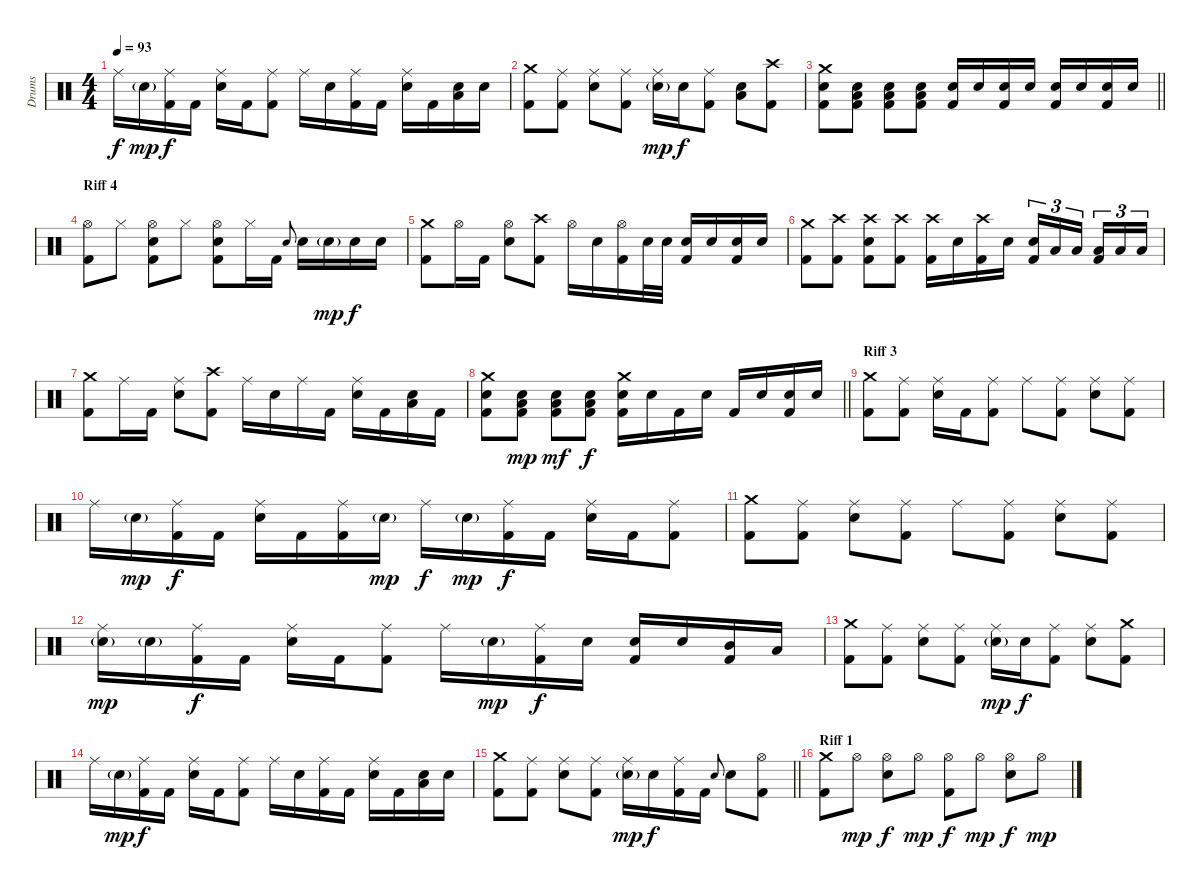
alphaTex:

\track ("Drums" "Drums") {instrument percussion}
\staff {score}
\articulation defaults
\ts (4 4)
\tempo 93
\clef neutral
\ks c "Ride (middle)".16{dy f} "Electric Snare (hit)"{g}.16{dy mp}
("Kick (hit) 2" "Ride (middle)").16{dy f} "Kick (hit) 2".16 ("Electric Snare (hit)" "Ride (middle)").16 "Kick (hit) 2".16 ("Ride (middle)" "Kick (hit) 2").8 "Ride (middle)".16 "Electric Snare (hit)".16 ("Ride (middle)" "Kick (hit) 2").16 "Kick (hit) 2".16 ("Ride (middle)" "Electric Snare (hit)").16 "Kick (hit) 2".16 ("Electric Snare (hit)" "Low Floor Tom (hit)").16 "Electric Snare (hit)".16 |
("Crash medium (hit)" "Kick (hit) 2").8 ("Ride (middle)" "Kick (hit) 2").8 ("Electric Snare (hit)" "Ride (middle)").8 ("Ride (middle)" "Kick (hit) 2").8 ("Electric Snare (hit)"{g} "Ride (middle)").16{dy mp} "Electric Snare (hit)".16{dy f} ("Kick (hit) 2" "Ride (middle)").8 ("Electric Snare (hit)" "Low Floor Tom (hit)").8 ("Kick (hit) 2" "Crash high (hit)").8 |
\barLineRight lightlight
("Crash medium (hit)" "Electric Snare (hit)" "Kick (hit) 2").8 ("Electric Snare (hit)" "Low Floor Tom (hit)" "Kick (hit) 2").8 ("Electric Snare (hit)" "Low Floor Tom (hit)" "Kick (hit) 2").8 ("Electric Snare (hit)" "Low Floor Tom (hit)" "Kick (hit) 2").8 ("Electric Snare (hit)" "Kick (hit) 2").16 "Electric Snare (hit)".16 ("Electric Snare (hit)" "Kick (hit) 2").16 "Electric Snare (hit)".16 ("Electric Snare (hit)" "Kick (hit) 2").16 "Electric Snare (hit)".16 ("Electric Snare (hit)" "Kick (hit) 2").16 "Electric Snare (hit)".16 |
\section ("" "Riff 4")
("Hi-Hat (open)" "Kick (hit) 2").8 "Hi-Hat (closed)".8 ("Hi-Hat (open)" "Kick (hit) 2" "Electric Snare (hit)").8 "Hi-Hat (closed)".8 ("Hi-Hat (open)" "Kick (hit) 2" "Electric Snare (hit)").8 "Hi-Hat (closed)".16 "Kick (hit) 2".16 "Electric Snare (hit)".8{gr onbeat} "Electric Snare (hit)".16 "Electric Snare (hit)"{g}.16{dy mp} "Electric Snare (hit)".16{dy f} "Electric Snare (hit)".16 |
("Crash medium (hit)" "Kick (hit) 2").8 "Hi-Hat (open)".16 "Kick (hit) 2".16 ("Hi-Hat (open)" "Electric Snare (hit)").8 ("Crash high (hit)" "Kick (hit) 2").8 "Hi-Hat (open)".16 "Electric Snare (hit)".16 ("Kick (hit) 2" "Hi-Hat (open)").16 "Electric Snare (hit)".32 "Electric Snare (hit)".32 ("Electric Snare (hit)" "Kick (hit) 2").16 "Electric Snare (hit)".16 ("Electric Snare (hit)" "Kick (hit) 2").16 "Electric Snare (hit)".16 |
("Crash medium (hit)" "Kick (hit) 2").8 ("Crash high (hit)" "Kick (hit) 2").8 ("Electric Snare (hit)" "Kick (hit) 2" "Crash high (hit)").8 ("Crash high (hit)" "Kick (hit) 2").8 ("Crash high (hit)" "Kick (hit) 2").16 "Electric Snare (hit)".16 ("Kick (hit) 2" "Crash high (hit)").16 "Electric Snare (hit)".16 ("Electric Snare (hit)" "Kick (hit) 2").16{tu (3 2)} "Low Floor Tom (hit)".16{tu (3 2)} "Low Floor Tom (hit)".16{tu (3 2) beam splitsecondary} ("Low Tom (hit)" "Kick (hit) 2").16{tu (3 2)} "Low Floor Tom (hit)".16{tu (3 2)} "Low Floor Tom (hit)".16{tu (3 2)} |
("Crash medium (hit)" "Kick (hit) 2").8 "Ride (middle)".16 "Kick (hit) 2".16 ("Ride (middle)" "Electric Snare (hit)").8 ("Crash high (hit)" "Kick (hit) 2").8 "Ride (middle)".16 "Electric Snare (hit)".16 "Ride (middle)".16 "Kick (hit) 2".16 ("Electric Snare (hit)" "Ride (middle)").16 "Kick (hit) 2".16 ("Electric Snare (hit)" "Low Floor Tom (hit)").16 "Kick (hit) 2".16 |
\barLineRight lightlight
("Crash medium (hit)" "Electric Snare (hit)" "Kick (hit) 2").8 ("Electric Snare (hit)" "Low Floor Tom (hit)" "Kick (hit) 2").8{dy mp} ("Electric Snare (hit)" "Low Floor Tom (hit)" "Kick (hit) 2").8{dy mf} ("Electric Snare (hit)" "Low Floor Tom (hit)" "Kick (hit) 2").8{dy f} ("Electric Snare (hit)" "Kick (hit) 2" "Crash medium (hit)").16 "Electric Snare (hit)".16 "Kick (hit) 2".16 "Electric Snare (hit)".16 "Kick (hit) 2".16 "Electric Snare (hit)".16 ("Electric Snare (hit)" "Kick (hit) 2").16 "Electric Snare (hit)".16 |
\section ("" "Riff 3")
("Crash medium (hit)" "Kick (hit) 2").8 ("Ride (middle)" "Kick (hit) 2").8 ("Electric Snare (hit)" "Ride (middle)").16 "Kick (hit) 2".16 ("Ride (middle)" "Kick (hit) 2").8 "Ride (middle)".8 ("Kick (hit) 2" "Ride (middle)").8 ("Electric Snare (hit)" "Ride (middle)").8 ("Kick (hit) 2" "Ride (middle)").8 |
"Ride (middle)".16 "Electric Snare (hit)"{g}.16{dy mp} ("Kick (hit) 2" "Ride (middle)").16{dy f} "Kick (hit) 2".16 ("Electric Snare (hit)" "Ride (middle)").16 "Kick (hit) 2".16 ("Kick (hit) 2" "Ride (middle)").16 "Electric Snare (hit)"{g}.16{dy mp} "Ride (middle)".16{dy f} "Electric Snare (hit)"{g}.16{dy mp} ("Ride (middle)" "Kick (hit) 2").16{dy f} "Kick (hit) 2".16 ("Ride (middle)" "Electric Snare (hit)").16 "Kick (hit) 2".16 ("Kick (hit) 2" "Ride (middle)").8 |
("Crash medium (hit)" "Kick (hit) 2").8 ("Ride (middle)" "Kick (hit) 2").8 ("Electric Snare (hit)" "Ride (middle)").8 ("Ride (middle)" "Kick (hit) 2").8 "Ride (middle)".8 ("Kick (hit) 2" "Ride (middle)").8 ("Electric Snare (hit)" "Ride (middle)").8 ("Kick (hit) 2" "Ride (middle)").8 |
("Electric Snare (hit)"{g} "Ride (middle)").16{dy mp} "Electric Snare (hit)"{g}.16 ("Ride (middle)" "Kick (hit) 2").16{dy f} "Kick (hit) 2".16 ("Electric Snare (hit)" "Ride (middle)").16 "Kick (hit) 2".16 ("Kick (hit) 2" "Ride (middle)").8 "Ride (middle)".16 "Electric Snare (hit)"{g}.16{dy mp} ("Kick (hit) 2" "Ride (middle)").16{dy f} "Electric Snare (hit)".16 ("Electric Snare (hit)" "Kick (hit) 2").16 "Electric Snare (hit)".16 ("Mid Tom (hit)" "Kick (hit) 2").16 "Low Floor Tom (hit)".16 |
("Crash medium (hit)" "Kick (hit) 2").8 ("Ride (middle)" "Kick (hit) 2").8 ("Electric Snare (hit)" "Ride (middle)").8 ("Ride (middle)" "Kick (hit) 2").8 ("Electric Snare (hit)"{g} "Ride (middle)").16{dy mp} "Electric Snare (hit)".16{dy f} ("Kick (hit) 2" "Ride (middle)").8 ("Electric Snare (hit)" "Ride (middle)").8 ("Kick (hit) 2" "Crash medium (hit)").8 |
"Ride (middle)".16 "Electric Snare (hit)"{g}.16{dy mp} ("Kick (hit) 2" "Ride (middle)").16{dy f} "Kick (hit) 2".16 ("Electric Snare (hit)" "Ride (middle)").16 "Kick (hit) 2".16 ("Ride (middle)" "Kick (hit) 2").8 "Ride (middle)".16 "Electric Snare (hit)".16 ("Ride (middle)" "Kick (hit) 2").16 "Kick (hit) 2".16 ("Ride (middle)" "Electric Snare (hit)").16 "Kick (hit) 2".16 ("Electric Snare (hit)" "Low Floor Tom (hit)").16 "Electric Snare (hit)".16 |
\barLineRight lightlight
("Crash medium (hit)" "Kick (hit) 2").8 ("Ride (middle)" "Kick (hit) 2").8 ("Electric Snare (hit)" "Ride (middle)").8 ("Ride (middle)" "Kick (hit) 2").8 ("Electric Snare (hit)"{g} "Ride (middle)").16{dy mp} "Electric Snare (hit)".16{dy f} ("Kick (hit) 2" "Ride (middle)").16 "Kick (hit) 2".16 "Electric Snare (hit)".8{gr onbeat} "Electric Snare (hit)".8 ("Kick (hit) 2" "Hi-Hat (open)").8 |
\section ("" "Riff 1")
("Crash medium (hit)" "Kick (hit) 2").8 "Hi-Hat (open)".8{dy mp} ("Hi-Hat (open)" "Electric Snare (hit)").8{dy f} "Hi-Hat (open)".8{dy mp} ("Hi-Hat (open)" "Kick (hit) 2").8{dy f} "Hi-Hat (open)".8{dy mp} ("Electric Snare (hit)" "Hi-Hat (open)").8{dy f} "Hi-Hat (open)".8{dy mp}
